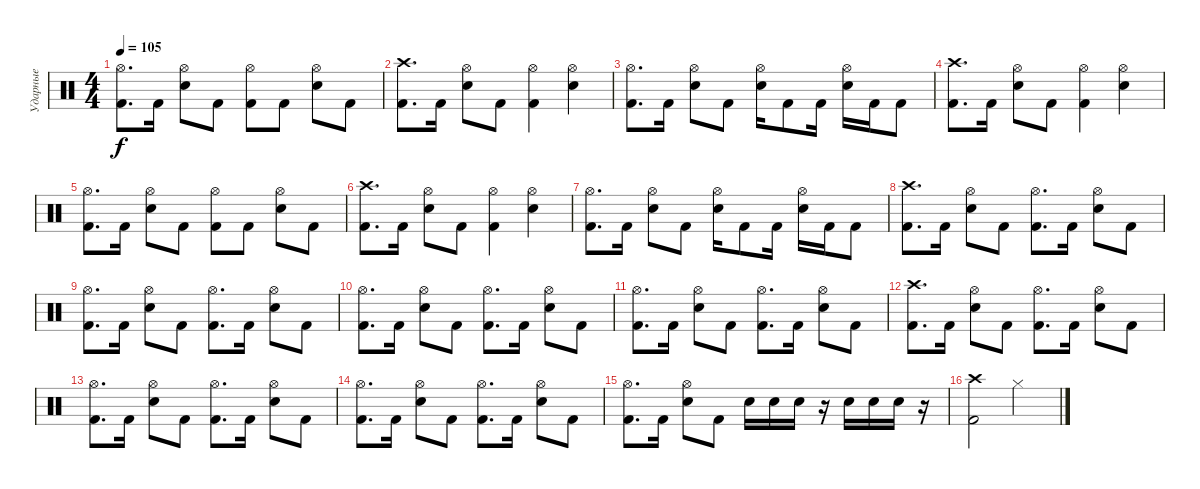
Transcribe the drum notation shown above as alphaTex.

\track ("Ударные" "Ударные") {instrument percussion}
\staff {score}
\articulation defaults
\ts (4 4)
\tempo 105
\clef neutral
\ks c
("Kick (hit) 2" "Hi-Hat (open)").8{d dy f} "Kick (hit) 2".16 ("Snare (hit) 2" "Hi-Hat (open)").8 "Kick (hit) 2".8 ("Kick (hit) 2" "Hi-Hat (open)").8 "Kick (hit) 2".8 ("Snare (hit) 2" "Hi-Hat (open)").8 "Kick (hit) 2".8 |
("Kick (hit) 2" "Crash high (hit)").8{d} "Kick (hit) 2".16 ("Snare (hit) 2" "Hi-Hat (open)").8 "Kick (hit) 2".8 ("Kick (hit) 2" "Hi-Hat (open)").4 ("Snare (hit) 2" "Hi-Hat (open)").4 |
("Kick (hit) 2" "Hi-Hat (open)").8{d} "Kick (hit) 2".16 ("Snare (hit) 2" "Hi-Hat (open)").8 "Kick (hit) 2".8 ("Snare (hit) 2" "Hi-Hat (open)").16 "Kick (hit) 2".8 "Kick (hit) 2".16 ("Snare (hit) 2" "Hi-Hat (open)").16 "Kick (hit) 2".16 "Kick (hit) 2".8 |
("Kick (hit) 2" "Crash high (hit)").8{d} "Kick (hit) 2".16 ("Snare (hit) 2" "Hi-Hat (open)").8 "Kick (hit) 2".8 ("Kick (hit) 2" "Hi-Hat (open)").4 ("Snare (hit) 2" "Hi-Hat (open)").4 |
("Kick (hit) 2" "Hi-Hat (open)").8{d} "Kick (hit) 2".16 ("Snare (hit) 2" "Hi-Hat (open)").8 "Kick (hit) 2".8 ("Kick (hit) 2" "Hi-Hat (open)").8 "Kick (hit) 2".8 ("Snare (hit) 2" "Hi-Hat (open)").8 "Kick (hit) 2".8 |
("Kick (hit) 2" "Crash high (hit)").8{d} "Kick (hit) 2".16 ("Snare (hit) 2" "Hi-Hat (open)").8 "Kick (hit) 2".8 ("Kick (hit) 2" "Hi-Hat (open)").4 ("Snare (hit) 2" "Hi-Hat (open)").4 |
("Kick (hit) 2" "Hi-Hat (open)").8{d} "Kick (hit) 2".16 ("Snare (hit) 2" "Hi-Hat (open)").8 "Kick (hit) 2".8 ("Snare (hit) 2" "Hi-Hat (open)").16 "Kick (hit) 2".8 "Kick (hit) 2".16 ("Snare (hit) 2" "Hi-Hat (open)").16 "Kick (hit) 2".16 "Kick (hit) 2".8 |
("Kick (hit) 2" "Crash high (hit)").8{d} "Kick (hit) 2".16 ("Snare (hit) 2" "Hi-Hat (open)").8 "Kick (hit) 2".8 ("Kick (hit) 2" "Hi-Hat (open)").8{d} "Kick (hit) 2".16 ("Snare (hit) 2" "Hi-Hat (open)").8 "Kick (hit) 2".8 |
("Kick (hit) 2" "Hi-Hat (open)").8{d} "Kick (hit) 2".16 ("Snare (hit) 2" "Hi-Hat (open)").8 "Kick (hit) 2".8 ("Kick (hit) 2" "Hi-Hat (open)").8{d} "Kick (hit) 2".16 ("Snare (hit) 2" "Hi-Hat (open)").8 "Kick (hit) 2".8 |
("Kick (hit) 2" "Hi-Hat (open)").8{d} "Kick (hit) 2".16 ("Snare (hit) 2" "Hi-Hat (open)").8 "Kick (hit) 2".8 ("Kick (hit) 2" "Hi-Hat (open)").8{d} "Kick (hit) 2".16 ("Snare (hit) 2" "Hi-Hat (open)").8 "Kick (hit) 2".8 |
("Kick (hit) 2" "Hi-Hat (open)").8{d} "Kick (hit) 2".16 ("Snare (hit) 2" "Hi-Hat (open)").8 "Kick (hit) 2".8 ("Kick (hit) 2" "Hi-Hat (open)").8{d} "Kick (hit) 2".16 ("Snare (hit) 2" "Hi-Hat (open)").8 "Kick (hit) 2".8 |
("Kick (hit) 2" "Crash high (hit)").8{d} "Kick (hit) 2".16 ("Snare (hit) 2" "Hi-Hat (open)").8 "Kick (hit) 2".8 ("Kick (hit) 2" "Hi-Hat (open)").8{d} "Kick (hit) 2".16 ("Snare (hit) 2" "Hi-Hat (open)").8 "Kick (hit) 2".8 |
("Kick (hit) 2" "Hi-Hat (open)").8{d} "Kick (hit) 2".16 ("Snare (hit) 2" "Hi-Hat (open)").8 "Kick (hit) 2".8 ("Kick (hit) 2" "Hi-Hat (open)").8{d} "Kick (hit) 2".16 ("Snare (hit) 2" "Hi-Hat (open)").8 "Kick (hit) 2".8 |
("Kick (hit) 2" "Hi-Hat (open)").8{d} "Kick (hit) 2".16 ("Snare (hit) 2" "Hi-Hat (open)").8 "Kick (hit) 2".8 ("Kick (hit) 2" "Hi-Hat (open)").8{d} "Kick (hit) 2".16 ("Snare (hit) 2" "Hi-Hat (open)").8 "Kick (hit) 2".8 |
("Kick (hit) 2" "Hi-Hat (open)").8{d} "Kick (hit) 2".16 ("Snare (hit) 2" "Hi-Hat (open)").8 "Kick (hit) 2".8 "Snare (hit) 2".16 "Snare (hit) 2".16 "Snare (hit) 2".16 r.16 "Snare (hit) 2".16 "Snare (hit) 2".16 "Snare (hit) 2".16 r.16 |
("Kick (hit) 2" "Crash high (hit)").2 "Hi-Hat (closed)".2
